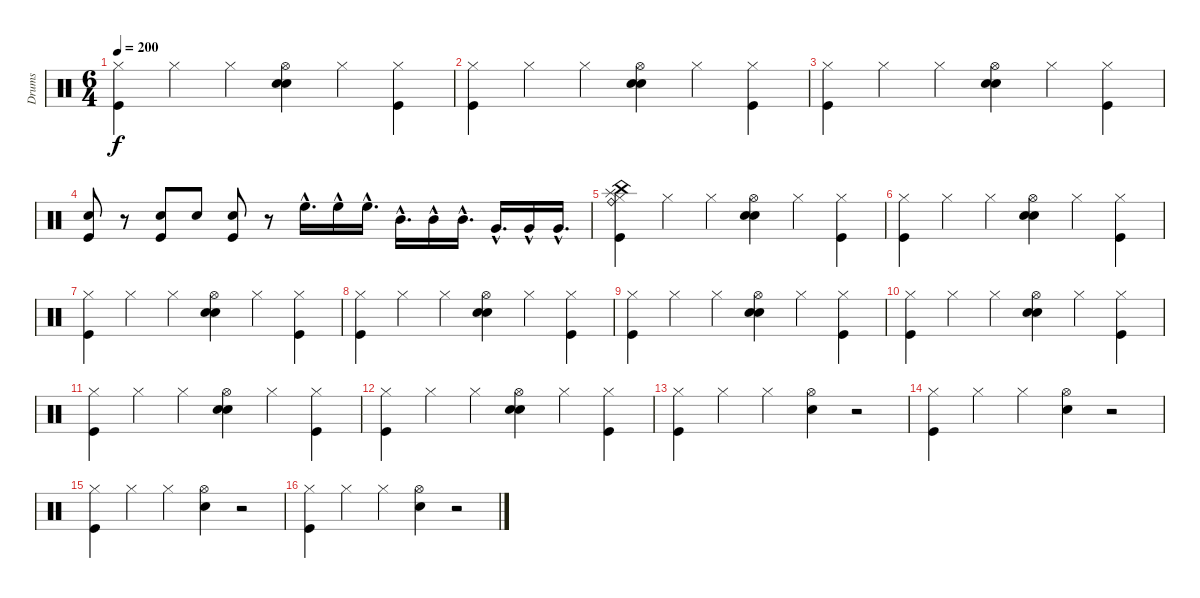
\track ("Drums" "Drums") {instrument percussion}
\staff {score}
\articulation defaults
\ts (6 4)
\tempo 200
\clef neutral
\ks c
("Hi-Hat (closed)" "Kick (hit)").4{dy f} "Hi-Hat (closed)".4 "Hi-Hat (closed)".4 ("Electric Snare (hit)" "Hand Clap (hit)" "Hi-Hat (open)").4 "Hi-Hat (closed)".4 ("Kick (hit)" "Hi-Hat (closed)").4 |
("Hi-Hat (closed)" "Kick (hit)").4 "Hi-Hat (closed)".4 "Hi-Hat (closed)".4 ("Electric Snare (hit)" "Hand Clap (hit)" "Hi-Hat (open)").4 "Hi-Hat (closed)".4 ("Kick (hit)" "Hi-Hat (closed)").4 |
("Hi-Hat (closed)" "Kick (hit)").4 "Hi-Hat (closed)".4 "Hi-Hat (closed)".4 ("Electric Snare (hit)" "Hand Clap (hit)" "Hi-Hat (open)").4 "Hi-Hat (closed)".4 ("Kick (hit)" "Hi-Hat (closed)").4 |
("Kick (hit)" "Electric Snare (hit)").8 r.8 ("Kick (hit)" "Electric Snare (hit)").8 "Electric Snare (hit)".8{volume 10} ("Kick (hit)" "Electric Snare (hit)").8{volume 10} r.8 "High Floor Tom (hit)"{hac}.16{d volume 11} "High Floor Tom (hit)"{hac}.16{volume 11} "High Floor Tom (hit)"{hac}.16{d volume 11} "Mid Tom (hit)"{hac}.16{d volume 11} "Mid Tom (hit)"{hac}.16{volume 12} "Mid Tom (hit)"{hac}.16{d volume 12} "Very Low Tom (hit)"{hac}.16{d volume 12} "Very Low Tom (hit)"{hac}.16{volume 12} "Very Low Tom (hit)"{hac}.16{d volume 12} |
("Ride (bell)" "China (hit)" "Splash (hit)" "Hi-Hat (closed)" "Kick (hit)").4{volume 12} "Hi-Hat (closed)".4{volume 13} "Hi-Hat (closed)".4{volume 9} ("Electric Snare (hit)" "Hand Clap (hit)" "Hi-Hat (open)").4 "Hi-Hat (closed)".4 ("Kick (hit)" "Hi-Hat (closed)").4 |
("Hi-Hat (closed)" "Kick (hit)").4 "Hi-Hat (closed)".4 "Hi-Hat (closed)".4 ("Electric Snare (hit)" "Hand Clap (hit)" "Hi-Hat (open)").4 "Hi-Hat (closed)".4 ("Kick (hit)" "Hi-Hat (closed)").4 |
("Hi-Hat (closed)" "Kick (hit)").4 "Hi-Hat (closed)".4 "Hi-Hat (closed)".4 ("Electric Snare (hit)" "Hand Clap (hit)" "Hi-Hat (open)").4 "Hi-Hat (closed)".4 ("Kick (hit)" "Hi-Hat (closed)").4 |
("Hi-Hat (closed)" "Kick (hit)").4 "Hi-Hat (closed)".4 "Hi-Hat (closed)".4 ("Electric Snare (hit)" "Hand Clap (hit)" "Hi-Hat (open)").4 "Hi-Hat (closed)".4 ("Kick (hit)" "Hi-Hat (closed)").4 |
("Hi-Hat (closed)" "Kick (hit)").4 "Hi-Hat (closed)".4 "Hi-Hat (closed)".4 ("Electric Snare (hit)" "Hand Clap (hit)" "Hi-Hat (open)").4 "Hi-Hat (closed)".4 ("Kick (hit)" "Hi-Hat (closed)").4 |
("Hi-Hat (closed)" "Kick (hit)").4 "Hi-Hat (closed)".4 "Hi-Hat (closed)".4 ("Electric Snare (hit)" "Hand Clap (hit)" "Hi-Hat (open)").4 "Hi-Hat (closed)".4 ("Kick (hit)" "Hi-Hat (closed)").4 |
("Hi-Hat (closed)" "Kick (hit)").4 "Hi-Hat (closed)".4 "Hi-Hat (closed)".4 ("Electric Snare (hit)" "Hand Clap (hit)" "Hi-Hat (open)").4 "Hi-Hat (closed)".4 ("Kick (hit)" "Hi-Hat (closed)").4 |
("Hi-Hat (closed)" "Kick (hit)").4 "Hi-Hat (closed)".4 "Hi-Hat (closed)".4 ("Electric Snare (hit)" "Hand Clap (hit)" "Hi-Hat (open)").4 "Hi-Hat (closed)".4 ("Kick (hit)" "Hi-Hat (closed)").4 |
("Hi-Hat (closed)" "Kick (hit)").4 "Hi-Hat (closed)".4 "Hi-Hat (closed)".4 ("Snare (hit) 2" "Hi-Hat (open)").4 r.2 |
("Hi-Hat (closed)" "Kick (hit)").4 "Hi-Hat (closed)".4 "Hi-Hat (closed)".4 ("Snare (hit) 2" "Hi-Hat (open)").4 r.2 |
("Hi-Hat (closed)" "Kick (hit)").4 "Hi-Hat (closed)".4 "Hi-Hat (closed)".4 ("Snare (hit) 2" "Hi-Hat (open)").4 r.2 |
("Hi-Hat (closed)" "Kick (hit)").4 "Hi-Hat (closed)".4 "Hi-Hat (closed)".4 ("Snare (hit) 2" "Hi-Hat (open)").4 r.2
